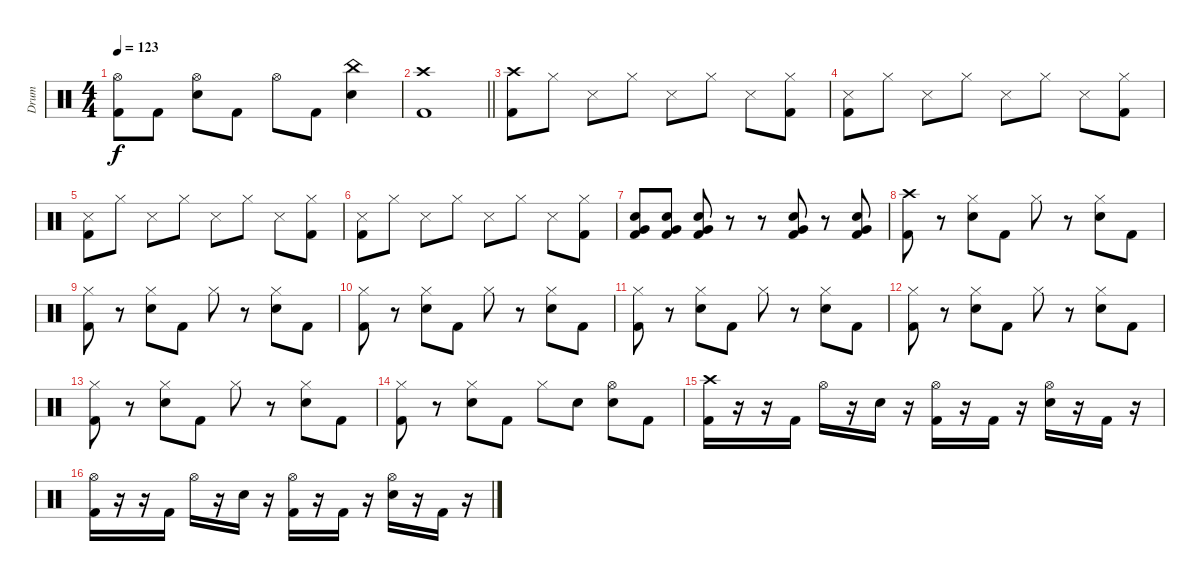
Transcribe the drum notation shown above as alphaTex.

\track ("Drum" "Drum") {instrument percussion}
\staff {score}
\articulation defaults
\ts (4 4)
\tempo 123
\clef neutral
\ks c
("Hi-Hat (open)" "Kick (hit) 2").8{dy f} "Kick (hit) 2".8 ("Hi-Hat (open)" "Electric Snare (hit)").8 "Kick (hit) 2".8 "Hi-Hat (open)".8 "Kick (hit) 2".8 ("China (hit)" "Electric Snare (hit)").4 |
\barLineRight lightlight
("Crash high (hit)" "Kick (hit) 2").1 |
("Crash high (hit)" "Kick (hit) 2").8 "Hi-Hat (closed)".8 "Snare (side stick) 3".8 "Hi-Hat (closed)".8 "Snare (side stick) 3".8 "Hi-Hat (closed)".8 "Snare (side stick) 3".8 ("Hi-Hat (closed)" "Kick (hit) 2").8 |
("Snare (side stick) 3" "Kick (hit) 2").8 "Hi-Hat (closed)".8 "Snare (side stick) 3".8 "Hi-Hat (closed)".8 "Snare (side stick) 3".8 "Hi-Hat (closed)".8 "Snare (side stick) 3".8 ("Hi-Hat (closed)" "Kick (hit) 2").8 |
("Snare (side stick) 3" "Kick (hit) 2").8 "Hi-Hat (closed)".8 "Snare (side stick) 3".8 "Hi-Hat (closed)".8 "Snare (side stick) 3".8 "Hi-Hat (closed)".8 "Snare (side stick) 3".8 ("Hi-Hat (closed)" "Kick (hit) 2").8 |
("Snare (side stick) 3" "Kick (hit) 2").8 "Hi-Hat (closed)".8 "Snare (side stick) 3".8 "Hi-Hat (closed)".8 "Snare (side stick) 3".8 "Hi-Hat (closed)".8 "Snare (side stick) 3".8 ("Hi-Hat (closed)" "Kick (hit) 2").8 |
("Electric Snare (hit)" "Very Low Tom (hit)" "Kick (hit) 2").8 ("Electric Snare (hit)" "Very Low Tom (hit)" "Kick (hit) 2").8 ("Electric Snare (hit)" "Very Low Tom (hit)" "Kick (hit) 2").8 r.8 r.8 ("Electric Snare (hit)" "Very Low Tom (hit)" "Kick (hit) 2").8 r.8 ("Electric Snare (hit)" "Very Low Tom (hit)" "Kick (hit) 2").8 |
("Crash high (hit)" "Kick (hit) 2").8 r.8 ("Hi-Hat (closed)" "Electric Snare (hit)").8 "Kick (hit) 2".8 "Hi-Hat (closed)".8 r.8 ("Hi-Hat (closed)" "Electric Snare (hit)").8 "Kick (hit) 2".8 |
("Hi-Hat (closed)" "Kick (hit) 2").8 r.8 ("Hi-Hat (closed)" "Electric Snare (hit)").8 "Kick (hit) 2".8 "Hi-Hat (closed)".8 r.8 ("Hi-Hat (closed)" "Electric Snare (hit)").8 "Kick (hit) 2".8 |
("Hi-Hat (closed)" "Kick (hit) 2").8 r.8 ("Hi-Hat (closed)" "Electric Snare (hit)").8 "Kick (hit) 2".8 "Hi-Hat (closed)".8 r.8 ("Hi-Hat (closed)" "Electric Snare (hit)").8 "Kick (hit) 2".8 |
("Hi-Hat (closed)" "Kick (hit) 2").8 r.8 ("Hi-Hat (closed)" "Electric Snare (hit)").8 "Kick (hit) 2".8 "Hi-Hat (closed)".8 r.8 ("Hi-Hat (closed)" "Electric Snare (hit)").8 "Kick (hit) 2".8 |
("Hi-Hat (closed)" "Kick (hit) 2").8 r.8 ("Hi-Hat (closed)" "Electric Snare (hit)").8 "Kick (hit) 2".8 "Hi-Hat (closed)".8 r.8 ("Hi-Hat (closed)" "Electric Snare (hit)").8 "Kick (hit) 2".8 |
("Hi-Hat (closed)" "Kick (hit) 2").8 r.8 ("Hi-Hat (closed)" "Electric Snare (hit)").8 "Kick (hit) 2".8 "Hi-Hat (closed)".8 r.8 ("Hi-Hat (closed)" "Electric Snare (hit)").8 "Kick (hit) 2".8 |
("Hi-Hat (closed)" "Kick (hit) 2").8 r.8 ("Hi-Hat (closed)" "Electric Snare (hit)").8 "Kick (hit) 2".8 "Hi-Hat (closed)".8 "Electric Snare (hit)".8 ("Hi-Hat (open)" "Electric Snare (hit)").8 "Kick (hit) 2".8 |
("Crash high (hit)" "Kick (hit) 2").16 r.16 r.16 "Kick (hit) 2".16 "Hi-Hat (open)".16 r.16 "Electric Snare (hit)".16 r.16 ("Hi-Hat (open)" "Kick (hit) 2").16 r.16 "Kick (hit) 2".16 r.16 ("Hi-Hat (open)" "Electric Snare (hit)").16 r.16 "Kick (hit) 2".16 r.16 |
("Hi-Hat (open)" "Kick (hit) 2").16 r.16 r.16 "Kick (hit) 2".16 "Hi-Hat (open)".16 r.16 "Electric Snare (hit)".16 r.16 ("Hi-Hat (open)" "Kick (hit) 2").16 r.16 "Kick (hit) 2".16 r.16 ("Hi-Hat (open)" "Electric Snare (hit)").16 r.16 "Kick (hit) 2".16 r.16
